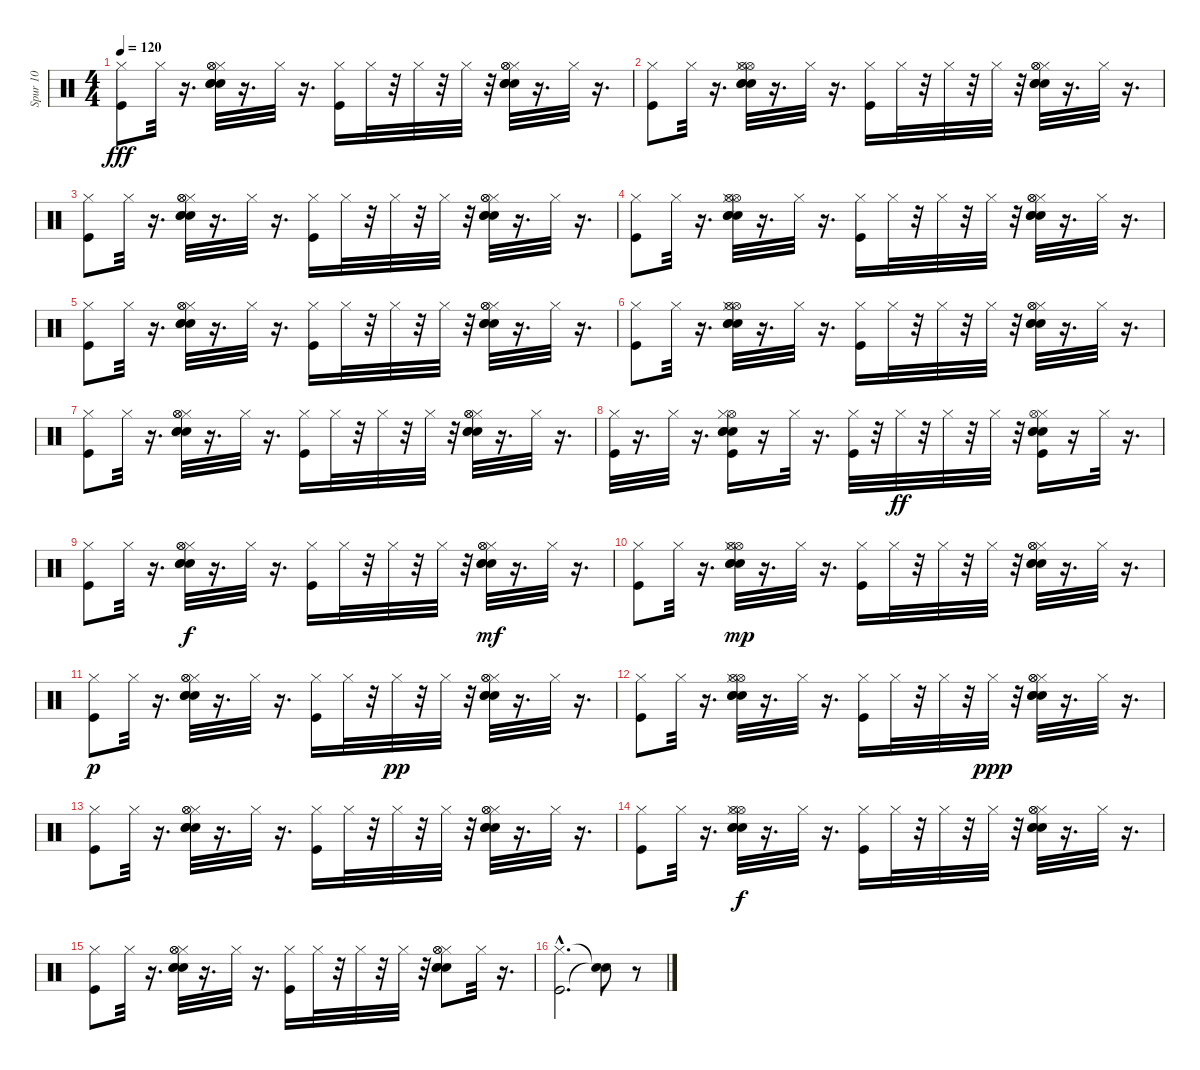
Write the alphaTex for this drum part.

\track ("Spur 10" "Spur 10") {instrument percussion}
\staff {score}
\articulation defaults
\ts (4 4)
\tempo 120
\clef neutral
\ks c
("Kick (hit)" "Hi-Hat (closed)").8{dy fff} "Hi-Hat (closed)".32 r.16{d} ("Snare (hit) 2" "Snare (hit) 2" "Hi-Hat (closed)" "Snare (hit) 2" "Hi-Hat (open)" "Hi-Hat (open)").32 r.16{d} "Hi-Hat (closed)".32 r.16{d} ("Hi-Hat (closed)" "Kick (hit)").16 "Hi-Hat (closed)".32 r.32 "Hi-Hat (closed)".32 r.32 "Hi-Hat (closed)".32 r.32 ("Hi-Hat (closed)" "Snare (hit) 2" "Hi-Hat (open)" "Hi-Hat (open)" "Snare (hit) 2" "Snare (hit) 2").32 r.16{d} "Hi-Hat (closed)".32 r.16{d} |
("Hi-Hat (closed)" "Kick (hit)").8 "Hi-Hat (closed)".32 r.16{d} ("Hi-Hat (open)" "Hi-Hat (closed)" "Snare (hit) 2" "Hi-Hat (open)" "Snare (hit) 2" "Snare (hit) 2").32 r.16{d} "Hi-Hat (closed)".32 r.16{d} ("Kick (hit)" "Hi-Hat (closed)").16 "Hi-Hat (closed)".32 r.32 "Hi-Hat (closed)".32 r.32 "Hi-Hat (closed)".32 r.32 ("Snare (hit) 2" "Hi-Hat (closed)" "Hi-Hat (open)" "Snare (hit) 2" "Hi-Hat (open)" "Snare (hit) 2").32 r.16{d} "Hi-Hat (closed)".32 r.16{d} |
("Kick (hit)" "Hi-Hat (closed)").8 "Hi-Hat (closed)".32 r.16{d} ("Snare (hit) 2" "Snare (hit) 2" "Hi-Hat (closed)" "Snare (hit) 2" "Hi-Hat (open)" "Hi-Hat (open)").32 r.16{d} "Hi-Hat (closed)".32 r.16{d} ("Hi-Hat (closed)" "Kick (hit)").16 "Hi-Hat (closed)".32 r.32 "Hi-Hat (closed)".32 r.32 "Hi-Hat (closed)".32 r.32 ("Hi-Hat (closed)" "Snare (hit) 2" "Hi-Hat (open)" "Hi-Hat (open)" "Snare (hit) 2" "Snare (hit) 2").32 r.16{d} "Hi-Hat (closed)".32 r.16{d} |
("Hi-Hat (closed)" "Kick (hit)").8 "Hi-Hat (closed)".32 r.16{d} ("Hi-Hat (open)" "Hi-Hat (closed)" "Snare (hit) 2" "Hi-Hat (open)" "Snare (hit) 2" "Snare (hit) 2").32 r.16{d} "Hi-Hat (closed)".32 r.16{d} ("Kick (hit)" "Hi-Hat (closed)").16 "Hi-Hat (closed)".32 r.32 "Hi-Hat (closed)".32 r.32 "Hi-Hat (closed)".32 r.32 ("Snare (hit) 2" "Hi-Hat (closed)" "Hi-Hat (open)" "Snare (hit) 2" "Hi-Hat (open)" "Snare (hit) 2").32 r.16{d} "Hi-Hat (closed)".32 r.16{d} |
("Kick (hit)" "Hi-Hat (closed)").8 "Hi-Hat (closed)".32 r.16{d} ("Snare (hit) 2" "Snare (hit) 2" "Hi-Hat (closed)" "Snare (hit) 2" "Hi-Hat (open)" "Hi-Hat (open)").32 r.16{d} "Hi-Hat (closed)".32 r.16{d} ("Hi-Hat (closed)" "Kick (hit)").16 "Hi-Hat (closed)".32 r.32 "Hi-Hat (closed)".32 r.32 "Hi-Hat (closed)".32 r.32 ("Hi-Hat (closed)" "Snare (hit) 2" "Hi-Hat (open)" "Hi-Hat (open)" "Snare (hit) 2" "Snare (hit) 2").32 r.16{d} "Hi-Hat (closed)".32 r.16{d} |
("Hi-Hat (closed)" "Kick (hit)").8 "Hi-Hat (closed)".32 r.16{d} ("Hi-Hat (open)" "Hi-Hat (closed)" "Snare (hit) 2" "Hi-Hat (open)" "Snare (hit) 2" "Snare (hit) 2").32 r.16{d} "Hi-Hat (closed)".32 r.16{d} ("Kick (hit)" "Hi-Hat (closed)").16 "Hi-Hat (closed)".32 r.32 "Hi-Hat (closed)".32 r.32 "Hi-Hat (closed)".32 r.32 ("Snare (hit) 2" "Hi-Hat (closed)" "Hi-Hat (open)" "Snare (hit) 2" "Hi-Hat (open)" "Snare (hit) 2").32 r.16{d} "Hi-Hat (closed)".32 r.16{d} |
("Kick (hit)" "Hi-Hat (closed)").8 "Hi-Hat (closed)".32 r.16{d} ("Snare (hit) 2" "Snare (hit) 2" "Hi-Hat (closed)" "Snare (hit) 2" "Hi-Hat (open)" "Hi-Hat (open)").32 r.16{d} "Hi-Hat (closed)".32 r.16{d} ("Hi-Hat (closed)" "Kick (hit)").16 "Hi-Hat (closed)".32 r.32 "Hi-Hat (closed)".32 r.32 "Hi-Hat (closed)".32 r.32 ("Hi-Hat (closed)" "Snare (hit) 2" "Hi-Hat (open)" "Hi-Hat (open)" "Snare (hit) 2" "Snare (hit) 2").32 r.16{d} "Hi-Hat (closed)".32 r.16{d} |
("Hi-Hat (closed)" "Kick (hit)").32 r.16{d} "Hi-Hat (closed)".32 r.16{d} ("Hi-Hat (open)" "Hi-Hat (closed)" "Snare (hit) 2" "Snare (hit) 2" "Snare (hit) 2" "Kick (hit)").16 r.16 "Hi-Hat (closed)".32 r.16{d} ("Kick (hit)" "Hi-Hat (closed)").32 r.32 "Hi-Hat (closed)".32{dy ff} r.32 "Hi-Hat (closed)".32 r.32 "Hi-Hat (closed)".32 r.32 ("Snare (hit) 2" "Hi-Hat (closed)" "Hi-Hat (open)" "Snare (hit) 2" "Snare (hit) 2" "Kick (hit)").16 r.16 "Hi-Hat (closed)".32 r.16{d} |
("Kick (hit)" "Hi-Hat (closed)").8 "Hi-Hat (closed)".32 r.16{d} ("Snare (hit) 2" "Snare (hit) 2" "Hi-Hat (closed)" "Snare (hit) 2" "Hi-Hat (open)" "Hi-Hat (open)").32{dy f} r.16{d} "Hi-Hat (closed)".32 r.16{d} ("Hi-Hat (closed)" "Kick (hit)").16 "Hi-Hat (closed)".32 r.32 "Hi-Hat (closed)".32 r.32 "Hi-Hat (closed)".32 r.32 ("Hi-Hat (closed)" "Snare (hit) 2" "Hi-Hat (open)" "Hi-Hat (open)" "Snare (hit) 2" "Snare (hit) 2").32{dy mf} r.16{d} "Hi-Hat (closed)".32 r.16{d} |
("Hi-Hat (closed)" "Kick (hit)").8 "Hi-Hat (closed)".32 r.16{d} ("Hi-Hat (open)" "Hi-Hat (closed)" "Snare (hit) 2" "Hi-Hat (open)" "Snare (hit) 2" "Snare (hit) 2").32{dy mp} r.16{d} "Hi-Hat (closed)".32 r.16{d} ("Kick (hit)" "Hi-Hat (closed)").16 "Hi-Hat (closed)".32 r.32 "Hi-Hat (closed)".32 r.32 "Hi-Hat (closed)".32 r.32 ("Snare (hit) 2" "Hi-Hat (closed)" "Hi-Hat (open)" "Snare (hit) 2" "Hi-Hat (open)" "Snare (hit) 2").32 r.16{d} "Hi-Hat (closed)".32 r.16{d} |
("Kick (hit)" "Hi-Hat (closed)").8{dy p} "Hi-Hat (closed)".32 r.16{d} ("Snare (hit) 2" "Snare (hit) 2" "Hi-Hat (closed)" "Snare (hit) 2" "Hi-Hat (open)" "Hi-Hat (open)").32 r.16{d} "Hi-Hat (closed)".32 r.16{d} ("Hi-Hat (closed)" "Kick (hit)").16 "Hi-Hat (closed)".32 r.32 "Hi-Hat (closed)".32{dy pp} r.32 "Hi-Hat (closed)".32 r.32 ("Hi-Hat (closed)" "Snare (hit) 2" "Hi-Hat (open)" "Hi-Hat (open)" "Snare (hit) 2" "Snare (hit) 2").32 r.16{d} "Hi-Hat (closed)".32 r.16{d} |
("Hi-Hat (closed)" "Kick (hit)").8 "Hi-Hat (closed)".32 r.16{d} ("Hi-Hat (open)" "Hi-Hat (closed)" "Snare (hit) 2" "Hi-Hat (open)" "Snare (hit) 2" "Snare (hit) 2").32 r.16{d} "Hi-Hat (closed)".32 r.16{d} ("Kick (hit)" "Hi-Hat (closed)").16 "Hi-Hat (closed)".32 r.32 "Hi-Hat (closed)".32 r.32 "Hi-Hat (closed)".32{dy ppp} r.32 ("Snare (hit) 2" "Hi-Hat (closed)" "Hi-Hat (open)" "Snare (hit) 2" "Hi-Hat (open)" "Snare (hit) 2").32 r.16{d} "Hi-Hat (closed)".32 r.16{d} |
("Kick (hit)" "Hi-Hat (closed)").8 "Hi-Hat (closed)".32 r.16{d} ("Snare (hit) 2" "Snare (hit) 2" "Hi-Hat (closed)" "Snare (hit) 2" "Hi-Hat (open)" "Hi-Hat (open)").32 r.16{d} "Hi-Hat (closed)".32 r.16{d} ("Hi-Hat (closed)" "Kick (hit)").16 "Hi-Hat (closed)".32 r.32 "Hi-Hat (closed)".32 r.32 "Hi-Hat (closed)".32 r.32 ("Hi-Hat (closed)" "Snare (hit) 2" "Hi-Hat (open)" "Hi-Hat (open)" "Snare (hit) 2" "Snare (hit) 2").32 r.16{d} "Hi-Hat (closed)".32 r.16{d} |
("Hi-Hat (closed)" "Kick (hit)").8 "Hi-Hat (closed)".32 r.16{d} ("Hi-Hat (open)" "Hi-Hat (closed)" "Snare (hit) 2" "Hi-Hat (open)" "Snare (hit) 2" "Snare (hit) 2").32{dy f} r.16{d} "Hi-Hat (closed)".32 r.16{d} ("Kick (hit)" "Hi-Hat (closed)").16 "Hi-Hat (closed)".32 r.32 "Hi-Hat (closed)".32 r.32 "Hi-Hat (closed)".32 r.32 ("Snare (hit) 2" "Hi-Hat (closed)" "Hi-Hat (open)" "Snare (hit) 2" "Hi-Hat (open)" "Snare (hit) 2").32 r.16{d} "Hi-Hat (closed)".32 r.16{d} |
("Kick (hit)" "Hi-Hat (closed)").8 "Hi-Hat (closed)".32 r.16{d} ("Snare (hit) 2" "Snare (hit) 2" "Hi-Hat (closed)" "Snare (hit) 2" "Hi-Hat (open)" "Hi-Hat (open)").32 r.16{d} "Hi-Hat (closed)".32 r.16{d} ("Hi-Hat (closed)" "Kick (hit)").16 "Hi-Hat (closed)".32 r.32 "Hi-Hat (closed)".32 r.32 "Hi-Hat (closed)".32 r.32 ("Hi-Hat (closed)" "Snare (hit) 2" "Hi-Hat (open)" "Hi-Hat (open)" "Snare (hit) 2" "Snare (hit) 2").8 "Hi-Hat (closed)".32 r.16{d} |
("Hi-Hat (closed)"{hac} "Kick (hit)"{hac}).2{d} ("Snare (hit)"{t} "Snare (hit)"{t}).8 r.8
